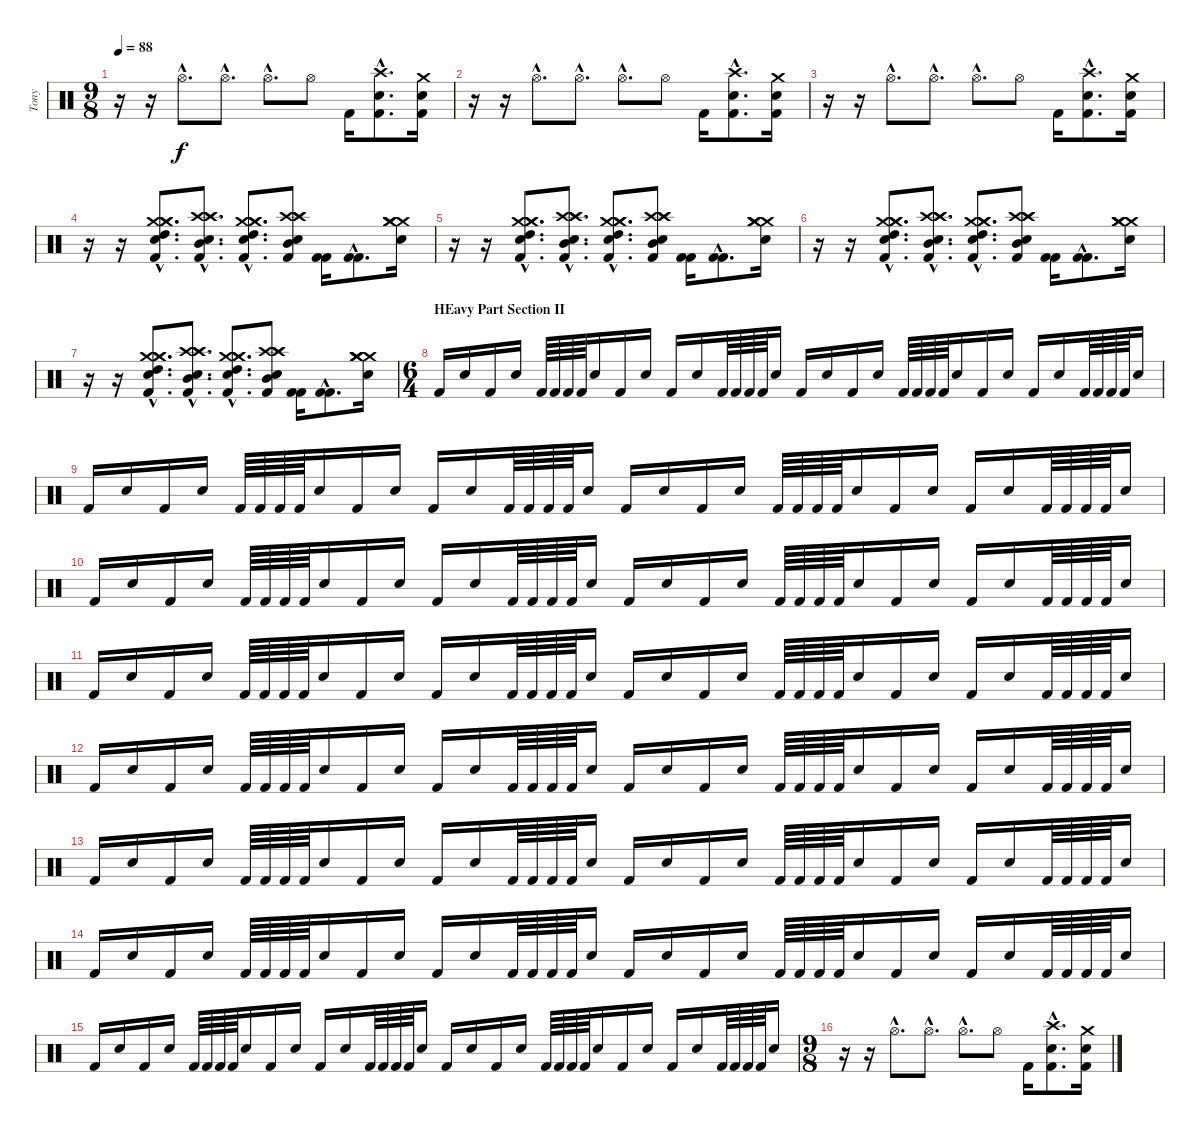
\track ("Tony" "Tony") {instrument percussion}
\staff {score}
\articulation defaults
\ts (9 8)
\tempo 88
\clef neutral
\ks c
r.16{dy f} r.16 "Hi-Hat (open)"{hac}.8{d} "Hi-Hat (open)"{hac}.8{d} "Hi-Hat (open)"{hac}.8{d} "Hi-Hat (open)".8 "Kick (hit) 2".16 ("Crash high (hit)"{hac} "Electric Snare (hit)"{hac} "Kick (hit) 2"{hac}).8{d} ("Crash medium (hit)" "Electric Snare (hit)" "Kick (hit) 2").16 |
r.16 r.16 "Hi-Hat (open)"{hac}.8{d} "Hi-Hat (open)"{hac}.8{d} "Hi-Hat (open)"{hac}.8{d} "Hi-Hat (open)".8 "Kick (hit) 2".16 ("Crash high (hit)"{hac} "Electric Snare (hit)"{hac} "Kick (hit) 2"{hac}).8{d} ("Crash medium (hit)" "Electric Snare (hit)" "Kick (hit) 2").16 |
r.16 r.16 "Hi-Hat (open)"{hac}.8{d} "Hi-Hat (open)"{hac}.8{d} "Hi-Hat (open)"{hac}.8{d} "Hi-Hat (open)".8 "Kick (hit) 2".16 ("Crash high (hit)"{hac} "Electric Snare (hit)"{hac} "Kick (hit) 2"{hac}).8{d} ("Crash medium (hit)" "Electric Snare (hit)" "Kick (hit) 2").16 |
r.16 r.16 ("Crash medium (hit)"{hac} "Crash medium (hit)"{hac} "Electric Snare (hit)"{hac} "Crash medium (hit)"{hac} "High Tom (hit)"{hac} "Kick (hit) 2"{hac}).8{d} ("Crash high (hit)"{hac} "Crash high (hit)"{hac} "Electric Snare (hit)"{hac} "Crash high (hit)"{hac} "Mid Tom (hit)"{hac} "Kick (hit) 2"{hac}).8{d} ("Crash medium (hit)"{hac} "Crash medium (hit)"{hac} "Electric Snare (hit)"{hac} "Crash medium (hit)"{hac} "High Tom (hit)"{hac} "Kick (hit) 2"{hac}).8{d} ("Crash high (hit)" "Crash high (hit)" "Electric Snare (hit)" "Crash high (hit)" "Mid Tom (hit)" "Kick (hit) 2").8 ("Kick (hit) 2" "Kick (hit) 2").16 ("Kick (hit) 2"{hac} "Kick (hit) 2"{hac}).8{d} ("Crash medium (hit)" "Crash medium (hit)" "Crash medium (hit)" "Crash medium (hit)" "Electric Snare (hit)").16 |
r.16 r.16 ("Crash medium (hit)"{hac} "Crash medium (hit)"{hac} "Electric Snare (hit)"{hac} "Crash medium (hit)"{hac} "High Tom (hit)"{hac} "Kick (hit) 2"{hac}).8{d} ("Crash high (hit)"{hac} "Crash high (hit)"{hac} "Electric Snare (hit)"{hac} "Crash high (hit)"{hac} "Mid Tom (hit)"{hac} "Kick (hit) 2"{hac}).8{d} ("Crash medium (hit)"{hac} "Crash medium (hit)"{hac} "Electric Snare (hit)"{hac} "Crash medium (hit)"{hac} "High Tom (hit)"{hac} "Kick (hit) 2"{hac}).8{d} ("Crash high (hit)" "Crash high (hit)" "Electric Snare (hit)" "Crash high (hit)" "Mid Tom (hit)" "Kick (hit) 2").8 ("Kick (hit) 2" "Kick (hit) 2").16 ("Kick (hit) 2"{hac} "Kick (hit) 2"{hac}).8{d} ("Crash medium (hit)" "Crash medium (hit)" "Crash medium (hit)" "Crash medium (hit)" "Electric Snare (hit)").16 |
r.16 r.16 ("Crash medium (hit)"{hac} "Crash medium (hit)"{hac} "Electric Snare (hit)"{hac} "Crash medium (hit)"{hac} "High Tom (hit)"{hac} "Kick (hit) 2"{hac}).8{d} ("Crash high (hit)"{hac} "Crash high (hit)"{hac} "Electric Snare (hit)"{hac} "Crash high (hit)"{hac} "Mid Tom (hit)"{hac} "Kick (hit) 2"{hac}).8{d} ("Crash medium (hit)"{hac} "Crash medium (hit)"{hac} "Electric Snare (hit)"{hac} "Crash medium (hit)"{hac} "High Tom (hit)"{hac} "Kick (hit) 2"{hac}).8{d} ("Crash high (hit)" "Crash high (hit)" "Electric Snare (hit)" "Crash high (hit)" "Mid Tom (hit)" "Kick (hit) 2").8 ("Kick (hit) 2" "Kick (hit) 2").16 ("Kick (hit) 2"{hac} "Kick (hit) 2"{hac}).8{d} ("Crash medium (hit)" "Crash medium (hit)" "Crash medium (hit)" "Crash medium (hit)" "Electric Snare (hit)").16 |
r.16 r.16 ("Crash medium (hit)"{hac} "Crash medium (hit)"{hac} "Electric Snare (hit)"{hac} "Crash medium (hit)"{hac} "High Tom (hit)"{hac} "Kick (hit) 2"{hac}).8{d} ("Crash high (hit)"{hac} "Crash high (hit)"{hac} "Electric Snare (hit)"{hac} "Crash high (hit)"{hac} "Mid Tom (hit)"{hac} "Kick (hit) 2"{hac}).8{d} ("Crash medium (hit)"{hac} "Crash medium (hit)"{hac} "Electric Snare (hit)"{hac} "Crash medium (hit)"{hac} "High Tom (hit)"{hac} "Kick (hit) 2"{hac}).8{d} ("Crash high (hit)" "Crash high (hit)" "Electric Snare (hit)" "Crash high (hit)" "Mid Tom (hit)" "Kick (hit) 2").8 ("Kick (hit) 2" "Kick (hit) 2").16 ("Kick (hit) 2"{hac} "Kick (hit) 2"{hac}).8{d} ("Crash medium (hit)" "Crash medium (hit)" "Crash medium (hit)" "Crash medium (hit)" "Electric Snare (hit)").16 |
\ts (6 4)
\section ("" "HEavy Part Section II")
"Kick (hit) 2".16 "Electric Snare (hit)".16 "Kick (hit) 2".16 "Electric Snare (hit)".16 "Kick (hit) 2".64 "Kick (hit) 2".64 "Kick (hit) 2".64 "Kick (hit) 2".64 "Electric Snare (hit)".16 "Kick (hit) 2".16 "Electric Snare (hit)".16 "Kick (hit) 2".16 "Electric Snare (hit)".16 "Kick (hit) 2".64 "Kick (hit) 2".64 "Kick (hit) 2".64 "Kick (hit) 2".64 "Electric Snare (hit)".16 "Kick (hit) 2".16 "Electric Snare (hit)".16 "Kick (hit) 2".16 "Electric Snare (hit)".16 "Kick (hit) 2".64 "Kick (hit) 2".64 "Kick (hit) 2".64 "Kick (hit) 2".64 "Electric Snare (hit)".16 "Kick (hit) 2".16 "Electric Snare (hit)".16 "Kick (hit) 2".16 "Electric Snare (hit)".16 "Kick (hit) 2".64 "Kick (hit) 2".64 "Kick (hit) 2".64 "Kick (hit) 2".64 "Electric Snare (hit)".16 |
"Kick (hit) 2".16 "Electric Snare (hit)".16 "Kick (hit) 2".16 "Electric Snare (hit)".16 "Kick (hit) 2".64 "Kick (hit) 2".64 "Kick (hit) 2".64 "Kick (hit) 2".64 "Electric Snare (hit)".16 "Kick (hit) 2".16 "Electric Snare (hit)".16 "Kick (hit) 2".16 "Electric Snare (hit)".16 "Kick (hit) 2".64 "Kick (hit) 2".64 "Kick (hit) 2".64 "Kick (hit) 2".64 "Electric Snare (hit)".16 "Kick (hit) 2".16 "Electric Snare (hit)".16 "Kick (hit) 2".16 "Electric Snare (hit)".16 "Kick (hit) 2".64 "Kick (hit) 2".64 "Kick (hit) 2".64 "Kick (hit) 2".64 "Electric Snare (hit)".16 "Kick (hit) 2".16 "Electric Snare (hit)".16 "Kick (hit) 2".16 "Electric Snare (hit)".16 "Kick (hit) 2".64 "Kick (hit) 2".64 "Kick (hit) 2".64 "Kick (hit) 2".64 "Electric Snare (hit)".16 |
"Kick (hit) 2".16 "Electric Snare (hit)".16 "Kick (hit) 2".16 "Electric Snare (hit)".16 "Kick (hit) 2".64 "Kick (hit) 2".64 "Kick (hit) 2".64 "Kick (hit) 2".64 "Electric Snare (hit)".16 "Kick (hit) 2".16 "Electric Snare (hit)".16 "Kick (hit) 2".16 "Electric Snare (hit)".16 "Kick (hit) 2".64 "Kick (hit) 2".64 "Kick (hit) 2".64 "Kick (hit) 2".64 "Electric Snare (hit)".16 "Kick (hit) 2".16 "Electric Snare (hit)".16 "Kick (hit) 2".16 "Electric Snare (hit)".16 "Kick (hit) 2".64 "Kick (hit) 2".64 "Kick (hit) 2".64 "Kick (hit) 2".64 "Electric Snare (hit)".16 "Kick (hit) 2".16 "Electric Snare (hit)".16 "Kick (hit) 2".16 "Electric Snare (hit)".16 "Kick (hit) 2".64 "Kick (hit) 2".64 "Kick (hit) 2".64 "Kick (hit) 2".64 "Electric Snare (hit)".16 |
"Kick (hit) 2".16 "Electric Snare (hit)".16 "Kick (hit) 2".16 "Electric Snare (hit)".16 "Kick (hit) 2".64 "Kick (hit) 2".64 "Kick (hit) 2".64 "Kick (hit) 2".64 "Electric Snare (hit)".16 "Kick (hit) 2".16 "Electric Snare (hit)".16 "Kick (hit) 2".16 "Electric Snare (hit)".16 "Kick (hit) 2".64 "Kick (hit) 2".64 "Kick (hit) 2".64 "Kick (hit) 2".64 "Electric Snare (hit)".16 "Kick (hit) 2".16 "Electric Snare (hit)".16 "Kick (hit) 2".16 "Electric Snare (hit)".16 "Kick (hit) 2".64 "Kick (hit) 2".64 "Kick (hit) 2".64 "Kick (hit) 2".64 "Electric Snare (hit)".16 "Kick (hit) 2".16 "Electric Snare (hit)".16 "Kick (hit) 2".16 "Electric Snare (hit)".16 "Kick (hit) 2".64 "Kick (hit) 2".64 "Kick (hit) 2".64 "Kick (hit) 2".64 "Electric Snare (hit)".16 |
"Kick (hit) 2".16 "Electric Snare (hit)".16 "Kick (hit) 2".16 "Electric Snare (hit)".16 "Kick (hit) 2".64 "Kick (hit) 2".64 "Kick (hit) 2".64 "Kick (hit) 2".64 "Electric Snare (hit)".16 "Kick (hit) 2".16 "Electric Snare (hit)".16 "Kick (hit) 2".16 "Electric Snare (hit)".16 "Kick (hit) 2".64 "Kick (hit) 2".64 "Kick (hit) 2".64 "Kick (hit) 2".64 "Electric Snare (hit)".16 "Kick (hit) 2".16 "Electric Snare (hit)".16 "Kick (hit) 2".16 "Electric Snare (hit)".16 "Kick (hit) 2".64 "Kick (hit) 2".64 "Kick (hit) 2".64 "Kick (hit) 2".64 "Electric Snare (hit)".16 "Kick (hit) 2".16 "Electric Snare (hit)".16 "Kick (hit) 2".16 "Electric Snare (hit)".16 "Kick (hit) 2".64 "Kick (hit) 2".64 "Kick (hit) 2".64 "Kick (hit) 2".64 "Electric Snare (hit)".16 |
"Kick (hit) 2".16 "Electric Snare (hit)".16 "Kick (hit) 2".16 "Electric Snare (hit)".16 "Kick (hit) 2".64 "Kick (hit) 2".64 "Kick (hit) 2".64 "Kick (hit) 2".64 "Electric Snare (hit)".16 "Kick (hit) 2".16 "Electric Snare (hit)".16 "Kick (hit) 2".16 "Electric Snare (hit)".16 "Kick (hit) 2".64 "Kick (hit) 2".64 "Kick (hit) 2".64 "Kick (hit) 2".64 "Electric Snare (hit)".16 "Kick (hit) 2".16 "Electric Snare (hit)".16 "Kick (hit) 2".16 "Electric Snare (hit)".16 "Kick (hit) 2".64 "Kick (hit) 2".64 "Kick (hit) 2".64 "Kick (hit) 2".64 "Electric Snare (hit)".16 "Kick (hit) 2".16 "Electric Snare (hit)".16 "Kick (hit) 2".16 "Electric Snare (hit)".16 "Kick (hit) 2".64 "Kick (hit) 2".64 "Kick (hit) 2".64 "Kick (hit) 2".64 "Electric Snare (hit)".16 |
"Kick (hit) 2".16 "Electric Snare (hit)".16 "Kick (hit) 2".16 "Electric Snare (hit)".16 "Kick (hit) 2".64 "Kick (hit) 2".64 "Kick (hit) 2".64 "Kick (hit) 2".64 "Electric Snare (hit)".16 "Kick (hit) 2".16 "Electric Snare (hit)".16 "Kick (hit) 2".16 "Electric Snare (hit)".16 "Kick (hit) 2".64 "Kick (hit) 2".64 "Kick (hit) 2".64 "Kick (hit) 2".64 "Electric Snare (hit)".16 "Kick (hit) 2".16 "Electric Snare (hit)".16 "Kick (hit) 2".16 "Electric Snare (hit)".16 "Kick (hit) 2".64 "Kick (hit) 2".64 "Kick (hit) 2".64 "Kick (hit) 2".64 "Electric Snare (hit)".16 "Kick (hit) 2".16 "Electric Snare (hit)".16 "Kick (hit) 2".16 "Electric Snare (hit)".16 "Kick (hit) 2".64 "Kick (hit) 2".64 "Kick (hit) 2".64 "Kick (hit) 2".64 "Electric Snare (hit)".16 |
"Kick (hit) 2".16 "Electric Snare (hit)".16 "Kick (hit) 2".16 "Electric Snare (hit)".16 "Kick (hit) 2".64 "Kick (hit) 2".64 "Kick (hit) 2".64 "Kick (hit) 2".64 "Electric Snare (hit)".16 "Kick (hit) 2".16 "Electric Snare (hit)".16 "Kick (hit) 2".16 "Electric Snare (hit)".16 "Kick (hit) 2".64 "Kick (hit) 2".64 "Kick (hit) 2".64 "Kick (hit) 2".64 "Electric Snare (hit)".16 "Kick (hit) 2".16 "Electric Snare (hit)".16 "Kick (hit) 2".16 "Electric Snare (hit)".16 "Kick (hit) 2".64 "Kick (hit) 2".64 "Kick (hit) 2".64 "Kick (hit) 2".64 "Electric Snare (hit)".16 "Kick (hit) 2".16 "Electric Snare (hit)".16 "Kick (hit) 2".16 "Electric Snare (hit)".16 "Kick (hit) 2".64 "Kick (hit) 2".64 "Kick (hit) 2".64 "Kick (hit) 2".64 "Electric Snare (hit)".16 |
\ts (9 8)
r.16 r.16 "Hi-Hat (open)"{hac}.8{d} "Hi-Hat (open)"{hac}.8{d} "Hi-Hat (open)"{hac}.8{d} "Hi-Hat (open)".8 "Kick (hit) 2".16 ("Crash high (hit)"{hac} "Electric Snare (hit)"{hac} "Kick (hit) 2"{hac}).8{d} ("Crash medium (hit)" "Electric Snare (hit)" "Kick (hit) 2").16
